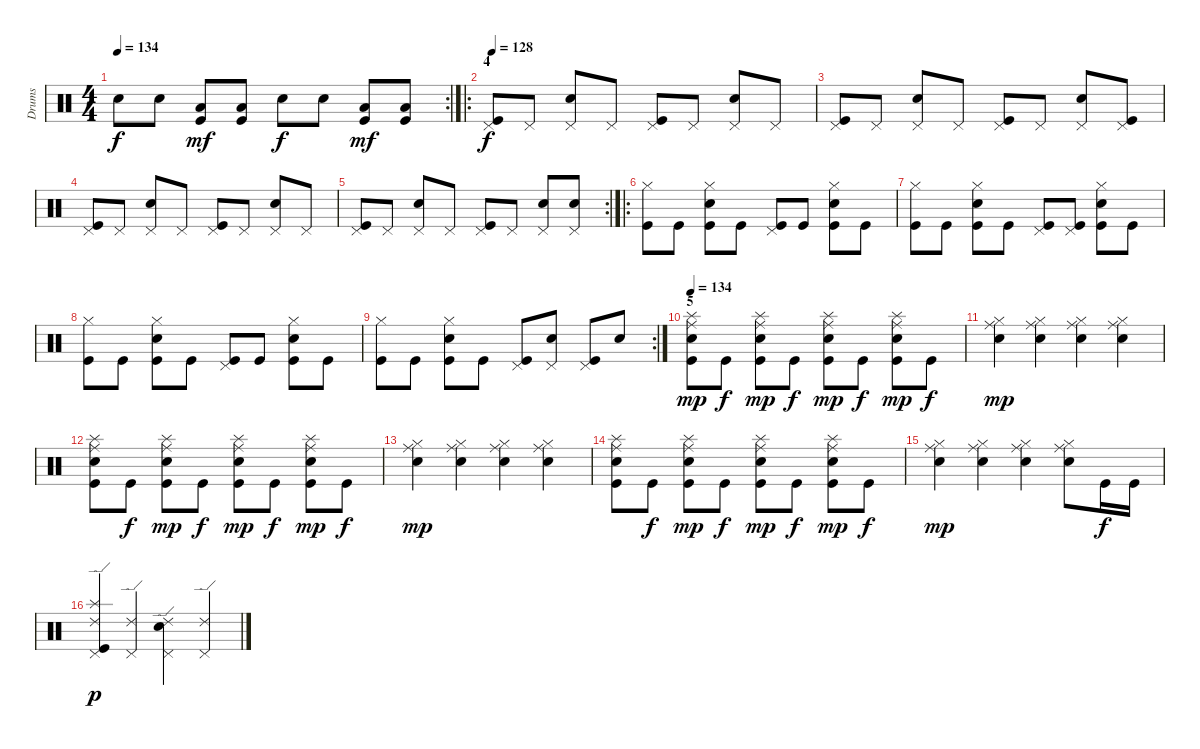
\track ("Drums" "Drums") {instrument percussion}
\staff {score}
\articulation defaults
\rc 2
\ts (4 4)
\tempo 134
\clef neutral
\ks c "Electric Snare (hit)".8{dy f} "Electric Snare (hit)".8
("Kick (hit)" "Low Floor Tom (hit)").8{dy mf} ("Kick (hit)" "Low Floor Tom (hit)").8 "Electric Snare (hit)".8{dy f} "Electric Snare (hit)".8 ("Kick (hit)" "Low Floor Tom (hit)").8{dy mf} ("Kick (hit)" "Low Floor Tom (hit)").8 |
\ro
\section ("" "4")
\tempo 128
("Pedal Hi-Hat (hit)" "Kick (hit)").8{dy f} "Pedal Hi-Hat (hit)".8 ("Pedal Hi-Hat (hit)" "Electric Snare (hit)").8 "Pedal Hi-Hat (hit)".8 ("Pedal Hi-Hat (hit)" "Kick (hit)").8 "Pedal Hi-Hat (hit)".8 ("Pedal Hi-Hat (hit)" "Electric Snare (hit)").8 "Pedal Hi-Hat (hit)".8 |
("Pedal Hi-Hat (hit)" "Kick (hit)").8 "Pedal Hi-Hat (hit)".8 ("Pedal Hi-Hat (hit)" "Electric Snare (hit)").8 "Pedal Hi-Hat (hit)".8 ("Pedal Hi-Hat (hit)" "Kick (hit)").8 "Pedal Hi-Hat (hit)".8 ("Pedal Hi-Hat (hit)" "Electric Snare (hit)").8 ("Pedal Hi-Hat (hit)" "Kick (hit)").8 |
("Pedal Hi-Hat (hit)" "Kick (hit)").8 "Pedal Hi-Hat (hit)".8 ("Pedal Hi-Hat (hit)" "Electric Snare (hit)").8 "Pedal Hi-Hat (hit)".8 ("Pedal Hi-Hat (hit)" "Kick (hit)").8 "Pedal Hi-Hat (hit)".8 ("Pedal Hi-Hat (hit)" "Electric Snare (hit)").8 "Pedal Hi-Hat (hit)".8 |
\rc 2
("Pedal Hi-Hat (hit)" "Kick (hit)").8 "Pedal Hi-Hat (hit)".8 ("Pedal Hi-Hat (hit)" "Electric Snare (hit)").8 "Pedal Hi-Hat (hit)".8 ("Pedal Hi-Hat (hit)" "Kick (hit)").8 "Pedal Hi-Hat (hit)".8 ("Pedal Hi-Hat (hit)" "Electric Snare (hit)").8 ("Pedal Hi-Hat (hit)" "Electric Snare (hit)").8 |
\ro
("Hi-Hat (closed)" "Kick (hit)").8 "Kick (hit)".8 ("Hi-Hat (closed)" "Electric Snare (hit)" "Kick (hit)").8 "Kick (hit)".8 ("Pedal Hi-Hat (hit)" "Kick (hit)").8 "Kick (hit)".8 ("Hi-Hat (closed)" "Electric Snare (hit)" "Kick (hit)").8 "Kick (hit)".8 |
("Hi-Hat (closed)" "Kick (hit)").8 "Kick (hit)".8 ("Hi-Hat (closed)" "Electric Snare (hit)" "Kick (hit)").8 "Kick (hit)".8 ("Pedal Hi-Hat (hit)" "Kick (hit)").8 ("Pedal Hi-Hat (hit)" "Kick (hit)").8 ("Hi-Hat (closed)" "Electric Snare (hit)" "Kick (hit)").8 "Kick (hit)".8 |
("Hi-Hat (closed)" "Kick (hit)").8 "Kick (hit)".8 ("Hi-Hat (closed)" "Electric Snare (hit)" "Kick (hit)").8 "Kick (hit)".8 ("Pedal Hi-Hat (hit)" "Kick (hit)").8 "Kick (hit)".8 ("Hi-Hat (closed)" "Electric Snare (hit)" "Kick (hit)").8 "Kick (hit)".8 |
\rc 2
("Hi-Hat (closed)" "Kick (hit)").8 "Kick (hit)".8 ("Hi-Hat (closed)" "Electric Snare (hit)" "Kick (hit)").8 "Kick (hit)".8 ("Pedal Hi-Hat (hit)" "Kick (hit)").8 ("Pedal Hi-Hat (hit)" "Electric Snare (hit)").8 ("Pedal Hi-Hat (hit)" "Kick (hit)").8 "Electric Snare (hit)".8 |
\section ("" "5")
\tempo 134
("Electric Snare (hit)" "Splash (hit)" "Kick (hit)" "Ride (middle)").8{dy mp} "Kick (hit)".8{dy f} ("Electric Snare (hit)" "Splash (hit)" "Kick (hit)" "Ride (middle)").8{dy mp} "Kick (hit)".8{dy f} ("Electric Snare (hit)" "Splash (hit)" "Kick (hit)" "Ride (middle)").8{dy mp} "Kick (hit)".8{dy f} ("Electric Snare (hit)" "Splash (hit)" "Kick (hit)" "Ride (middle)").8{dy mp} "Kick (hit)".8{dy f} |
("Electric Snare (hit)" "Hi-Hat (closed)" "Ride (middle)").4{dy mp} ("Electric Snare (hit)" "Hi-Hat (closed)" "Ride (middle)").4 ("Electric Snare (hit)" "Hi-Hat (closed)" "Ride (middle)").4 ("Electric Snare (hit)" "Hi-Hat (closed)" "Ride (middle)").4 |
("Electric Snare (hit)" "Splash (hit)" "Kick (hit)" "Ride (middle)").8 "Kick (hit)".8{dy f} ("Electric Snare (hit)" "Splash (hit)" "Kick (hit)" "Ride (middle)").8{dy mp} "Kick (hit)".8{dy f} ("Electric Snare (hit)" "Splash (hit)" "Kick (hit)" "Ride (middle)").8{dy mp} "Kick (hit)".8{dy f} ("Electric Snare (hit)" "Splash (hit)" "Kick (hit)" "Ride (middle)").8{dy mp} "Kick (hit)".8{dy f} |
("Electric Snare (hit)" "Hi-Hat (closed)" "Ride (middle)").4{dy mp} ("Electric Snare (hit)" "Hi-Hat (closed)" "Ride (middle)").4 ("Electric Snare (hit)" "Hi-Hat (closed)" "Ride (middle)").4 ("Electric Snare (hit)" "Hi-Hat (closed)" "Ride (middle)").4 |
("Electric Snare (hit)" "Splash (hit)" "Kick (hit)" "Ride (middle)").8 "Kick (hit)".8{dy f} ("Electric Snare (hit)" "Splash (hit)" "Kick (hit)" "Ride (middle)").8{dy mp} "Kick (hit)".8{dy f} ("Electric Snare (hit)" "Splash (hit)" "Kick (hit)" "Ride (middle)").8{dy mp} "Kick (hit)".8{dy f} ("Electric Snare (hit)" "Splash (hit)" "Kick (hit)" "Ride (middle)").8{dy mp} "Kick (hit)".8{dy f} |
("Electric Snare (hit)" "Hi-Hat (closed)" "Ride (middle)").4{dy mp} ("Electric Snare (hit)" "Hi-Hat (closed)" "Ride (middle)").4 ("Electric Snare (hit)" "Hi-Hat (closed)" "Ride (middle)").4 ("Electric Snare (hit)" "Hi-Hat (closed)" "Ride (middle)").8 "Kick (hit)".16{dy f} "Kick (hit)".16 |
("Pedal Hi-Hat (hit)" "Kick (hit)" "Splash (hit)" "Ride (edge) 2").4{dy p} ("Pedal Hi-Hat (hit)" "Ride (edge) 2").4 ("Pedal Hi-Hat (hit)" "Electric Snare (hit)" "Ride (edge) 2").4 ("Pedal Hi-Hat (hit)" "Ride (edge) 2").4
